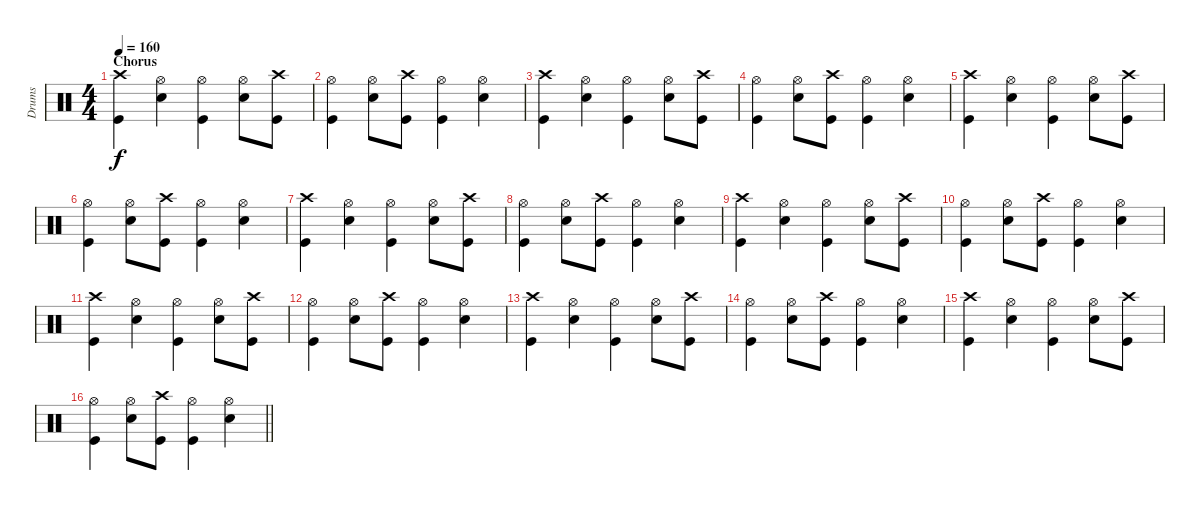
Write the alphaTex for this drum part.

\track ("Drums" "Drums") {instrument percussion}
\staff {score}
\articulation defaults
\ts (4 4)
\section ("" "Chorus")
\tempo 160
\clef neutral
\ks c
("Kick (hit)" "Crash high (hit)").4{dy f} ("Snare (hit) 2" "Hi-Hat (open)").4 ("Kick (hit)" "Hi-Hat (open)").4 ("Snare (hit) 2" "Hi-Hat (open)").8 ("Kick (hit)" "Crash high (hit)").8 |
("Kick (hit)" "Hi-Hat (open)").4 ("Snare (hit) 2" "Hi-Hat (open)").8 ("Kick (hit)" "Crash high (hit)").8 ("Kick (hit)" "Hi-Hat (open)").4 ("Snare (hit) 2" "Hi-Hat (open)").4 |
("Kick (hit)" "Crash high (hit)").4 ("Snare (hit) 2" "Hi-Hat (open)").4 ("Kick (hit)" "Hi-Hat (open)").4 ("Snare (hit) 2" "Hi-Hat (open)").8 ("Kick (hit)" "Crash high (hit)").8 |
("Kick (hit)" "Hi-Hat (open)").4 ("Snare (hit) 2" "Hi-Hat (open)").8 ("Kick (hit)" "Crash high (hit)").8 ("Kick (hit)" "Hi-Hat (open)").4 ("Snare (hit) 2" "Hi-Hat (open)").4 |
("Kick (hit)" "Crash high (hit)").4 ("Snare (hit) 2" "Hi-Hat (open)").4 ("Kick (hit)" "Hi-Hat (open)").4 ("Snare (hit) 2" "Hi-Hat (open)").8 ("Kick (hit)" "Crash high (hit)").8 |
("Kick (hit)" "Hi-Hat (open)").4 ("Snare (hit) 2" "Hi-Hat (open)").8 ("Kick (hit)" "Crash high (hit)").8 ("Kick (hit)" "Hi-Hat (open)").4 ("Snare (hit) 2" "Hi-Hat (open)").4 |
("Kick (hit)" "Crash high (hit)").4 ("Snare (hit) 2" "Hi-Hat (open)").4 ("Kick (hit)" "Hi-Hat (open)").4 ("Snare (hit) 2" "Hi-Hat (open)").8 ("Kick (hit)" "Crash high (hit)").8 |
("Kick (hit)" "Hi-Hat (open)").4 ("Snare (hit) 2" "Hi-Hat (open)").8 ("Kick (hit)" "Crash high (hit)").8 ("Kick (hit)" "Hi-Hat (open)").4 ("Snare (hit) 2" "Hi-Hat (open)").4 |
("Kick (hit)" "Crash high (hit)").4 ("Snare (hit) 2" "Hi-Hat (open)").4 ("Kick (hit)" "Hi-Hat (open)").4 ("Snare (hit) 2" "Hi-Hat (open)").8 ("Kick (hit)" "Crash high (hit)").8 |
("Kick (hit)" "Hi-Hat (open)").4 ("Snare (hit) 2" "Hi-Hat (open)").8 ("Kick (hit)" "Crash high (hit)").8 ("Kick (hit)" "Hi-Hat (open)").4 ("Snare (hit) 2" "Hi-Hat (open)").4 |
("Kick (hit)" "Crash high (hit)").4 ("Snare (hit) 2" "Hi-Hat (open)").4 ("Kick (hit)" "Hi-Hat (open)").4 ("Snare (hit) 2" "Hi-Hat (open)").8 ("Kick (hit)" "Crash high (hit)").8 |
("Kick (hit)" "Hi-Hat (open)").4 ("Snare (hit) 2" "Hi-Hat (open)").8 ("Kick (hit)" "Crash high (hit)").8 ("Kick (hit)" "Hi-Hat (open)").4 ("Snare (hit) 2" "Hi-Hat (open)").4 |
("Kick (hit)" "Crash high (hit)").4 ("Snare (hit) 2" "Hi-Hat (open)").4 ("Kick (hit)" "Hi-Hat (open)").4 ("Snare (hit) 2" "Hi-Hat (open)").8 ("Kick (hit)" "Crash high (hit)").8 |
("Kick (hit)" "Hi-Hat (open)").4 ("Snare (hit) 2" "Hi-Hat (open)").8 ("Kick (hit)" "Crash high (hit)").8 ("Kick (hit)" "Hi-Hat (open)").4 ("Snare (hit) 2" "Hi-Hat (open)").4 |
("Kick (hit)" "Crash high (hit)").4 ("Snare (hit) 2" "Hi-Hat (open)").4 ("Kick (hit)" "Hi-Hat (open)").4 ("Snare (hit) 2" "Hi-Hat (open)").8 ("Kick (hit)" "Crash high (hit)").8 |
\barLineRight lightlight
("Kick (hit)" "Hi-Hat (open)").4 ("Snare (hit) 2" "Hi-Hat (open)").8 ("Kick (hit)" "Crash high (hit)").8 ("Kick (hit)" "Hi-Hat (open)").4 ("Snare (hit) 2" "Hi-Hat (open)").4
